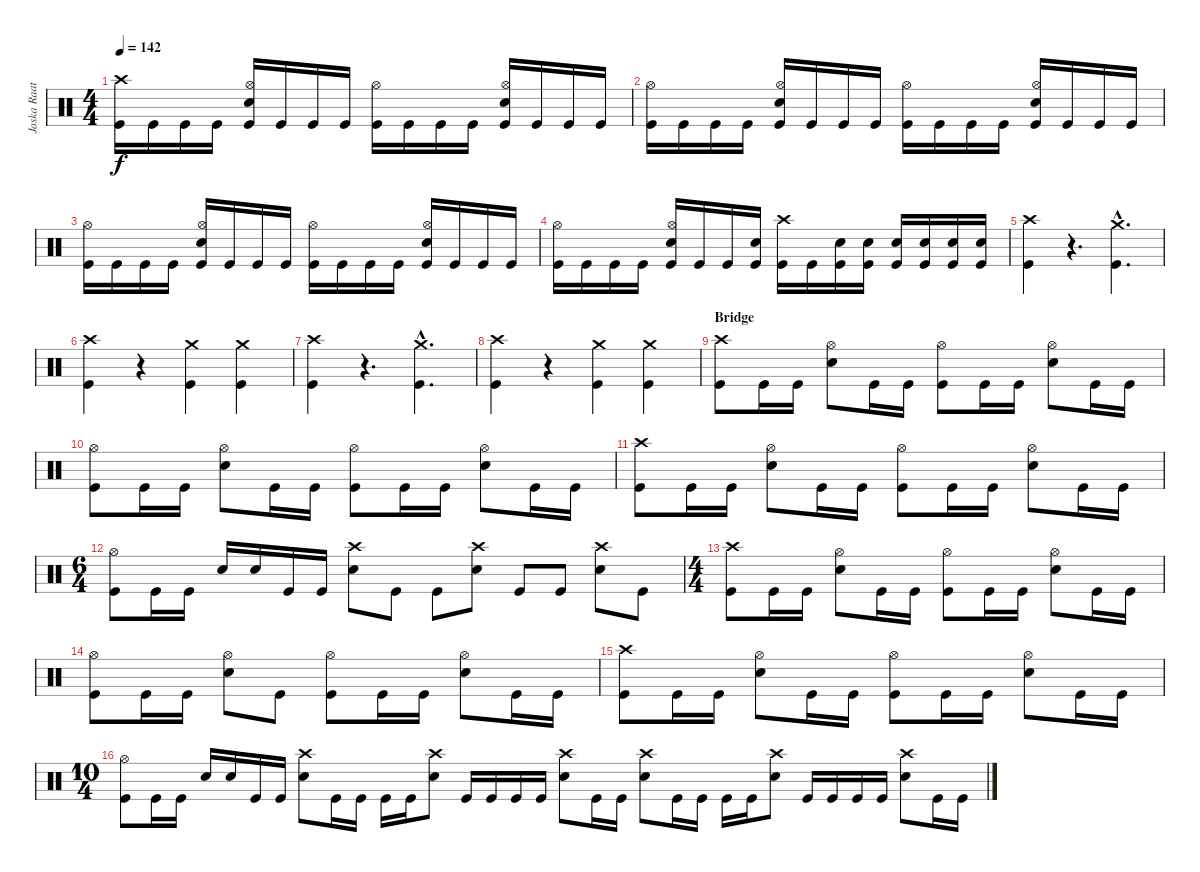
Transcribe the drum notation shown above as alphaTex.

\track ("Jaska Raatikainen" "Jaska Raat") {instrument percussion}
\staff {score}
\articulation defaults
\ts (4 4)
\tempo 142
\clef neutral
\ks c
("Crash high (hit)" "Kick (hit)").16{dy f} "Kick (hit)".16 "Kick (hit)".16 "Kick (hit)".16 ("Hi-Hat (open)" "Snare (hit) 2" "Kick (hit)").16 "Kick (hit)".16 "Kick (hit)".16 "Kick (hit)".16 ("Hi-Hat (open)" "Kick (hit)").16 "Kick (hit)".16 "Kick (hit)".16 "Kick (hit)".16 ("Hi-Hat (open)" "Snare (hit) 2" "Kick (hit)").16 "Kick (hit)".16 "Kick (hit)".16 "Kick (hit)".16 |
("Hi-Hat (open)" "Kick (hit)").16 "Kick (hit)".16 "Kick (hit)".16 "Kick (hit)".16 ("Hi-Hat (open)" "Snare (hit) 2" "Kick (hit)").16 "Kick (hit)".16 "Kick (hit)".16 "Kick (hit)".16 ("Hi-Hat (open)" "Kick (hit)").16 "Kick (hit)".16 "Kick (hit)".16 "Kick (hit)".16 ("Hi-Hat (open)" "Snare (hit) 2" "Kick (hit)").16 "Kick (hit)".16 "Kick (hit)".16 "Kick (hit)".16 |
("Hi-Hat (open)" "Kick (hit)").16 "Kick (hit)".16 "Kick (hit)".16 "Kick (hit)".16 ("Hi-Hat (open)" "Snare (hit) 2" "Kick (hit)").16 "Kick (hit)".16 "Kick (hit)".16 "Kick (hit)".16 ("Hi-Hat (open)" "Kick (hit)").16 "Kick (hit)".16 "Kick (hit)".16 "Kick (hit)".16 ("Hi-Hat (open)" "Snare (hit) 2" "Kick (hit)").16 "Kick (hit)".16 "Kick (hit)".16 "Kick (hit)".16 |
("Hi-Hat (open)" "Kick (hit)").16 "Kick (hit)".16 "Kick (hit)".16 "Kick (hit)".16 ("Hi-Hat (open)" "Snare (hit) 2" "Kick (hit)").16 "Kick (hit)".16 "Kick (hit)".16 ("Snare (hit) 2" "Kick (hit)").16 ("Crash high (hit)" "Kick (hit)").16 "Kick (hit)".16 ("Snare (hit) 2" "Kick (hit)").16 ("Snare (hit) 2" "Kick (hit)").16 ("Snare (hit) 2" "Kick (hit)").16 ("Snare (hit) 2" "Kick (hit)").16 ("Snare (hit) 2" "Kick (hit)").16 ("Snare (hit) 2" "Kick (hit)").16 |
("Crash high (hit)" "Kick (hit)").4 r.4{d} ("Crash medium (hit)"{hac} "Kick (hit)"{hac}).4{d} |
("Crash high (hit)" "Kick (hit)").4 r.4 ("Crash medium (hit)" "Kick (hit)").4 ("Crash medium (hit)" "Kick (hit)").4 |
("Crash high (hit)" "Kick (hit)").4 r.4{d} ("Crash medium (hit)"{hac} "Kick (hit)"{hac}).4{d} |
("Crash high (hit)" "Kick (hit)").4 r.4 ("Crash medium (hit)" "Kick (hit)").4 ("Crash medium (hit)" "Kick (hit)").4 |
\section ("" "Bridge ")
("Crash high (hit)" "Kick (hit)").8 "Kick (hit)".16 "Kick (hit)".16 ("Hi-Hat (open)" "Snare (hit) 2").8 "Kick (hit)".16 "Kick (hit)".16 ("Hi-Hat (open)" "Kick (hit)").8 "Kick (hit)".16 "Kick (hit)".16 ("Hi-Hat (open)" "Snare (hit) 2").8 "Kick (hit)".16 "Kick (hit)".16 |
("Hi-Hat (open)" "Kick (hit)").8 "Kick (hit)".16 "Kick (hit)".16 ("Hi-Hat (open)" "Snare (hit) 2").8 "Kick (hit)".16 "Kick (hit)".16 ("Hi-Hat (open)" "Kick (hit)").8 "Kick (hit)".16 "Kick (hit)".16 ("Hi-Hat (open)" "Snare (hit) 2").8 "Kick (hit)".16 "Kick (hit)".16 |
("Crash high (hit)" "Kick (hit)").8 "Kick (hit)".16 "Kick (hit)".16 ("Hi-Hat (open)" "Snare (hit) 2").8 "Kick (hit)".16 "Kick (hit)".16 ("Hi-Hat (open)" "Kick (hit)").8 "Kick (hit)".16 "Kick (hit)".16 ("Hi-Hat (open)" "Snare (hit) 2").8 "Kick (hit)".16 "Kick (hit)".16 |
\ts (6 4)
("Hi-Hat (open)" "Kick (hit)").8 "Kick (hit)".16 "Kick (hit)".16 "Snare (hit) 2".16 "Snare (hit) 2".16 "Kick (hit)".16 "Kick (hit)".16 ("Crash high (hit)" "Snare (hit) 2").8 "Kick (hit)".8 "Kick (hit)".8 ("Crash high (hit)" "Snare (hit) 2").8 "Kick (hit)".8 "Kick (hit)".8 ("Crash high (hit)" "Snare (hit) 2").8 "Kick (hit)".8 |
\ts (4 4)
("Crash high (hit)" "Kick (hit)").8 "Kick (hit)".16 "Kick (hit)".16 ("Hi-Hat (open)" "Snare (hit) 2").8 "Kick (hit)".16 "Kick (hit)".16 ("Hi-Hat (open)" "Kick (hit)").8 "Kick (hit)".16 "Kick (hit)".16 ("Hi-Hat (open)" "Snare (hit) 2").8 "Kick (hit)".16 "Kick (hit)".16 |
("Hi-Hat (open)" "Kick (hit)").8 "Kick (hit)".16 "Kick (hit)".16 ("Hi-Hat (open)" "Snare (hit) 2").8 "Kick (hit)".8 ("Hi-Hat (open)" "Kick (hit)").8 "Kick (hit)".16 "Kick (hit)".16 ("Hi-Hat (open)" "Snare (hit) 2").8 "Kick (hit)".16 "Kick (hit)".16 |
("Crash high (hit)" "Kick (hit)").8 "Kick (hit)".16 "Kick (hit)".16 ("Hi-Hat (open)" "Snare (hit) 2").8 "Kick (hit)".16 "Kick (hit)".16 ("Hi-Hat (open)" "Kick (hit)").8 "Kick (hit)".16 "Kick (hit)".16 ("Hi-Hat (open)" "Snare (hit) 2").8 "Kick (hit)".16 "Kick (hit)".16 |
\ts (10 4)
("Hi-Hat (open)" "Kick (hit)").8 "Kick (hit)".16 "Kick (hit)".16 "Snare (hit) 2".16 "Snare (hit) 2".16 "Kick (hit)".16 "Kick (hit)".16 ("Crash high (hit)" "Snare (hit) 2").8 "Kick (hit)".16 "Kick (hit)".16 "Kick (hit)".16 "Kick (hit)".16 ("Crash high (hit)" "Snare (hit) 2").8 "Kick (hit)".16 "Kick (hit)".16 "Kick (hit)".16 "Kick (hit)".16 ("Crash high (hit)" "Snare (hit) 2").8 "Kick (hit)".16 "Kick (hit)".16 ("Crash high (hit)" "Snare (hit) 2").8 "Kick (hit)".16 "Kick (hit)".16 "Kick (hit)".16 "Kick (hit)".16 ("Crash high (hit)" "Snare (hit) 2").8 "Kick (hit)".16 "Kick (hit)".16 "Kick (hit)".16 "Kick (hit)".16 ("Crash high (hit)" "Snare (hit) 2").8 "Kick (hit)".16 "Kick (hit)".16
